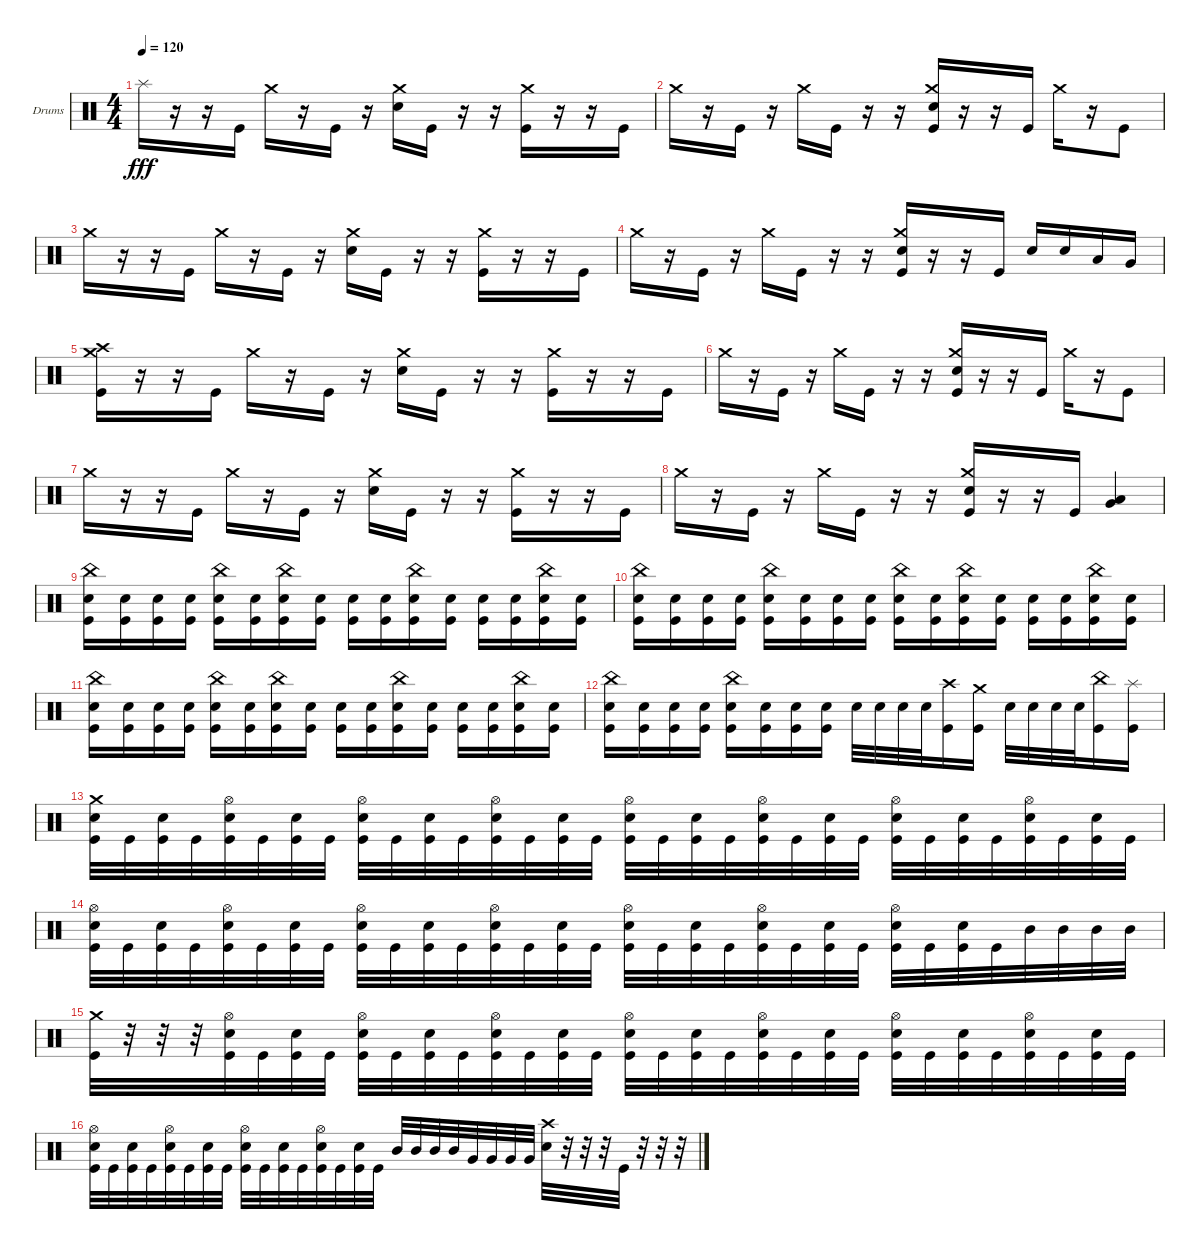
\bracketExtendMode groupsimilarinstruments
\firstSystemTrackNameOrientation horizontal
\otherSystemsTrackNameOrientation horizontal
\track ("Drumkit" "Drums") {instrument percussion}
\staff {score}
\articulation defaults
\ts (4 4)
\tempo 120
\clef neutral
\ks c "Splash (hit)".16{dy fff}
r.16 r.16 "Kick (hit)".16 "Crash medium (hit)".16 r.16 "Kick (hit)".16 r.16 ("Snare (hit) 2" "Crash medium (hit)").16 "Kick (hit)".16 r.16 r.16 ("Kick (hit)" "Crash medium (hit)").16 r.16 r.16 "Kick (hit)".16 |
"Crash medium (hit)".16 r.16 "Kick (hit)".16 r.16 "Crash medium (hit)".16 "Kick (hit)".16 r.16 r.16 ("Snare (hit) 2" "Kick (hit)" "Crash medium (hit)").16 r.16 r.16 "Kick (hit)".16 "Crash medium (hit)".16 r.16 "Kick (hit)".8 |
"Crash medium (hit)".16 r.16 r.16 "Kick (hit)".16 "Crash medium (hit)".16 r.16 "Kick (hit)".16 r.16 ("Snare (hit) 2" "Crash medium (hit)").16 "Kick (hit)".16 r.16 r.16 ("Kick (hit)" "Crash medium (hit)").16 r.16 r.16 "Kick (hit)".16 |
"Crash medium (hit)".16 r.16 "Kick (hit)".16 r.16 "Crash medium (hit)".16 "Kick (hit)".16 r.16 r.16 ("Snare (hit) 2" "Kick (hit)" "Crash medium (hit)").16 r.16 r.16 "Kick (hit)".16 "Snare (hit) 2".16 "Snare (hit) 2".16 "Low Tom (hit)".16 "Very Low Tom (hit)".16 |
("Kick (hit)" "Crash high (hit)" "Crash medium (hit)").16 r.16 r.16 "Kick (hit)".16 "Crash medium (hit)".16 r.16 "Kick (hit)".16 r.16 ("Snare (hit) 2" "Crash medium (hit)").16 "Kick (hit)".16 r.16 r.16 ("Kick (hit)" "Crash medium (hit)").16 r.16 r.16 "Kick (hit)".16 |
"Crash medium (hit)".16 r.16 "Kick (hit)".16 r.16 "Crash medium (hit)".16 "Kick (hit)".16 r.16 r.16 ("Snare (hit) 2" "Kick (hit)" "Crash medium (hit)").16 r.16 r.16 "Kick (hit)".16 "Crash medium (hit)".16 r.16 "Kick (hit)".8 |
"Crash medium (hit)".16 r.16 r.16 "Kick (hit)".16 "Crash medium (hit)".16 r.16 "Kick (hit)".16 r.16 ("Snare (hit) 2" "Crash medium (hit)").16 "Kick (hit)".16 r.16 r.16 ("Kick (hit)" "Crash medium (hit)").16 r.16 r.16 "Kick (hit)".16 |
"Crash medium (hit)".16 r.16 "Kick (hit)".16 r.16 "Crash medium (hit)".16 "Kick (hit)".16 r.16 r.16 ("Snare (hit) 2" "Kick (hit)" "Crash medium (hit)").16 r.16 r.16 "Kick (hit)".16 ("Low Tom (hit)" "Very Low Tom (hit)").4 |
("Kick (hit)" "China (hit)" "Snare (hit) 2").16 ("Snare (hit) 2" "Kick (hit)").16 ("Kick (hit)" "Snare (hit) 2").16 ("Snare (hit) 2" "Kick (hit)").16 ("Kick (hit)" "China (hit)" "Snare (hit) 2").16 ("Snare (hit) 2" "Kick (hit)").16 ("Kick (hit)" "Snare (hit) 2" "China (hit)").16 ("Snare (hit) 2" "Kick (hit)").16 ("Kick (hit)" "Snare (hit) 2").16 ("Snare (hit) 2" "Kick (hit)").16 ("Kick (hit)" "Snare (hit) 2" "China (hit)").16 ("Snare (hit) 2" "Kick (hit)").16 ("Kick (hit)" "Snare (hit) 2").16 ("Snare (hit) 2" "Kick (hit)").16 ("Kick (hit)" "Snare (hit) 2" "China (hit)").16 ("Snare (hit) 2" "Kick (hit)").16 |
("Kick (hit)" "China (hit)" "Snare (hit) 2").16 ("Snare (hit) 2" "Kick (hit)").16 ("Kick (hit)" "Snare (hit) 2").16 ("Snare (hit) 2" "Kick (hit)").16 ("Kick (hit)" "China (hit)" "Snare (hit) 2").16 ("Snare (hit) 2" "Kick (hit)").16 ("Kick (hit)" "Snare (hit) 2").16 ("Snare (hit) 2" "Kick (hit)").16 ("Kick (hit)" "Snare (hit) 2" "China (hit)").16 ("Snare (hit) 2" "Kick (hit)").16 ("Kick (hit)" "Snare (hit) 2" "China (hit)").16 ("Snare (hit) 2" "Kick (hit)").16 ("Kick (hit)" "Snare (hit) 2").16 ("Snare (hit) 2" "Kick (hit)").16 ("Kick (hit)" "Snare (hit) 2" "China (hit)").16 ("Snare (hit) 2" "Kick (hit)").16 |
("Kick (hit)" "China (hit)" "Snare (hit) 2").16 ("Snare (hit) 2" "Kick (hit)").16 ("Kick (hit)" "Snare (hit) 2").16 ("Snare (hit) 2" "Kick (hit)").16 ("Kick (hit)" "China (hit)" "Snare (hit) 2").16 ("Snare (hit) 2" "Kick (hit)").16 ("Kick (hit)" "Snare (hit) 2" "China (hit)").16 ("Snare (hit) 2" "Kick (hit)").16 ("Kick (hit)" "Snare (hit) 2").16 ("Snare (hit) 2" "Kick (hit)").16 ("Kick (hit)" "Snare (hit) 2" "China (hit)").16 ("Snare (hit) 2" "Kick (hit)").16 ("Kick (hit)" "Snare (hit) 2").16 ("Snare (hit) 2" "Kick (hit)").16 ("Kick (hit)" "Snare (hit) 2" "China (hit)").16 ("Snare (hit) 2" "Kick (hit)").16 |
("Kick (hit)" "China (hit)" "Snare (hit) 2").16 ("Snare (hit) 2" "Kick (hit)").16 ("Kick (hit)" "Snare (hit) 2").16 ("Snare (hit) 2" "Kick (hit)").16 ("Kick (hit)" "China (hit)" "Snare (hit) 2").16 ("Snare (hit) 2" "Kick (hit)").16 ("Kick (hit)" "Snare (hit) 2").16 ("Snare (hit) 2" "Kick (hit)").16 "Snare (hit) 2".32 "Snare (hit) 2".32 "Snare (hit) 2".32 "Snare (hit) 2".32 ("Kick (hit)" "Crash high (hit)").16 ("Kick (hit)" "Crash medium (hit)").16 "Snare (hit) 2".32 "Snare (hit) 2".32 "Snare (hit) 2".32 "Snare (hit) 2".32 ("Kick (hit)" "China (hit)").16 ("Kick (hit)" "Splash (hit)").16 |
("Kick (hit)" "Snare (hit) 2" "Crash medium (hit)").32 "Kick (hit)".32 ("Kick (hit)" "Snare (hit) 2").32 "Kick (hit)".32 ("Kick (hit)" "Snare (hit) 2" "Hi-Hat (open)").32 "Kick (hit)".32 ("Kick (hit)" "Snare (hit) 2").32 "Kick (hit)".32 ("Kick (hit)" "Snare (hit) 2" "Hi-Hat (open)").32 "Kick (hit)".32 ("Kick (hit)" "Snare (hit) 2").32 "Kick (hit)".32 ("Kick (hit)" "Snare (hit) 2" "Hi-Hat (open)").32 "Kick (hit)".32 ("Kick (hit)" "Snare (hit) 2").32 "Kick (hit)".32 ("Kick (hit)" "Snare (hit) 2" "Hi-Hat (open)").32 "Kick (hit)".32 ("Kick (hit)" "Snare (hit) 2").32 "Kick (hit)".32 ("Kick (hit)" "Snare (hit) 2" "Hi-Hat (open)").32 "Kick (hit)".32 ("Kick (hit)" "Snare (hit) 2").32 "Kick (hit)".32 ("Kick (hit)" "Snare (hit) 2" "Hi-Hat (open)").32 "Kick (hit)".32 ("Kick (hit)" "Snare (hit) 2").32 "Kick (hit)".32 ("Kick (hit)" "Snare (hit) 2" "Hi-Hat (open)").32 "Kick (hit)".32 ("Kick (hit)" "Snare (hit) 2").32 "Kick (hit)".32 |
("Kick (hit)" "Snare (hit) 2" "Hi-Hat (open)").32 "Kick (hit)".32 ("Kick (hit)" "Snare (hit) 2").32 "Kick (hit)".32 ("Kick (hit)" "Snare (hit) 2" "Hi-Hat (open)").32 "Kick (hit)".32 ("Kick (hit)" "Snare (hit) 2").32 "Kick (hit)".32 ("Kick (hit)" "Snare (hit) 2" "Hi-Hat (open)").32 "Kick (hit)".32 ("Kick (hit)" "Snare (hit) 2").32 "Kick (hit)".32 ("Kick (hit)" "Snare (hit) 2" "Hi-Hat (open)").32 "Kick (hit)".32 ("Kick (hit)" "Snare (hit) 2").32 "Kick (hit)".32 ("Kick (hit)" "Snare (hit) 2" "Hi-Hat (open)").32 "Kick (hit)".32 ("Kick (hit)" "Snare (hit) 2").32 "Kick (hit)".32 ("Kick (hit)" "Snare (hit) 2" "Hi-Hat (open)").32 "Kick (hit)".32 ("Kick (hit)" "Snare (hit) 2").32 "Kick (hit)".32 ("Kick (hit)" "Snare (hit) 2" "Hi-Hat (open)").32 "Kick (hit)".32 ("Kick (hit)" "Snare (hit) 2").32 "Kick (hit)".32 "Mid Tom (hit)".32 "Mid Tom (hit)".32 "Mid Tom (hit)".32 "Mid Tom (hit)".32 |
("Kick (hit)" "Crash medium (hit)").32 r.32 r.32 r.32 ("Kick (hit)" "Snare (hit) 2" "Hi-Hat (open)").32 "Kick (hit)".32 ("Kick (hit)" "Snare (hit) 2").32 "Kick (hit)".32 ("Kick (hit)" "Snare (hit) 2" "Hi-Hat (open)").32 "Kick (hit)".32 ("Kick (hit)" "Snare (hit) 2").32 "Kick (hit)".32 ("Kick (hit)" "Snare (hit) 2" "Hi-Hat (open)").32 "Kick (hit)".32 ("Kick (hit)" "Snare (hit) 2").32 "Kick (hit)".32 ("Kick (hit)" "Snare (hit) 2" "Hi-Hat (open)").32 "Kick (hit)".32 ("Kick (hit)" "Snare (hit) 2").32 "Kick (hit)".32 ("Kick (hit)" "Snare (hit) 2" "Hi-Hat (open)").32 "Kick (hit)".32 ("Kick (hit)" "Snare (hit) 2").32 "Kick (hit)".32 ("Kick (hit)" "Snare (hit) 2" "Hi-Hat (open)").32 "Kick (hit)".32 ("Kick (hit)" "Snare (hit) 2").32 "Kick (hit)".32 ("Kick (hit)" "Snare (hit) 2" "Hi-Hat (open)").32 "Kick (hit)".32 ("Kick (hit)" "Snare (hit) 2").32 "Kick (hit)".32 |
("Kick (hit)" "Snare (hit) 2" "Hi-Hat (open)").32 "Kick (hit)".32 ("Kick (hit)" "Snare (hit) 2").32 "Kick (hit)".32 ("Kick (hit)" "Snare (hit) 2" "Hi-Hat (open)").32 "Kick (hit)".32 ("Kick (hit)" "Snare (hit) 2").32 "Kick (hit)".32 ("Kick (hit)" "Snare (hit) 2" "Hi-Hat (open)").32 "Kick (hit)".32 ("Kick (hit)" "Snare (hit) 2").32 "Kick (hit)".32 ("Kick (hit)" "Snare (hit) 2" "Hi-Hat (open)").32 "Kick (hit)".32 ("Kick (hit)" "Snare (hit) 2").32 "Kick (hit)".32 "Mid Tom (hit)".32 "Mid Tom (hit)".32 "Mid Tom (hit)".32 "Mid Tom (hit)".32 "Very Low Tom (hit)".32 "Very Low Tom (hit)".32 "Very Low Tom (hit)".32 "Very Low Tom (hit)".32 ("Snare (hit) 2" "Crash high (hit)").32 r.32 r.32 r.32 "Kick (hit)".32 r.32 r.32 r.32
